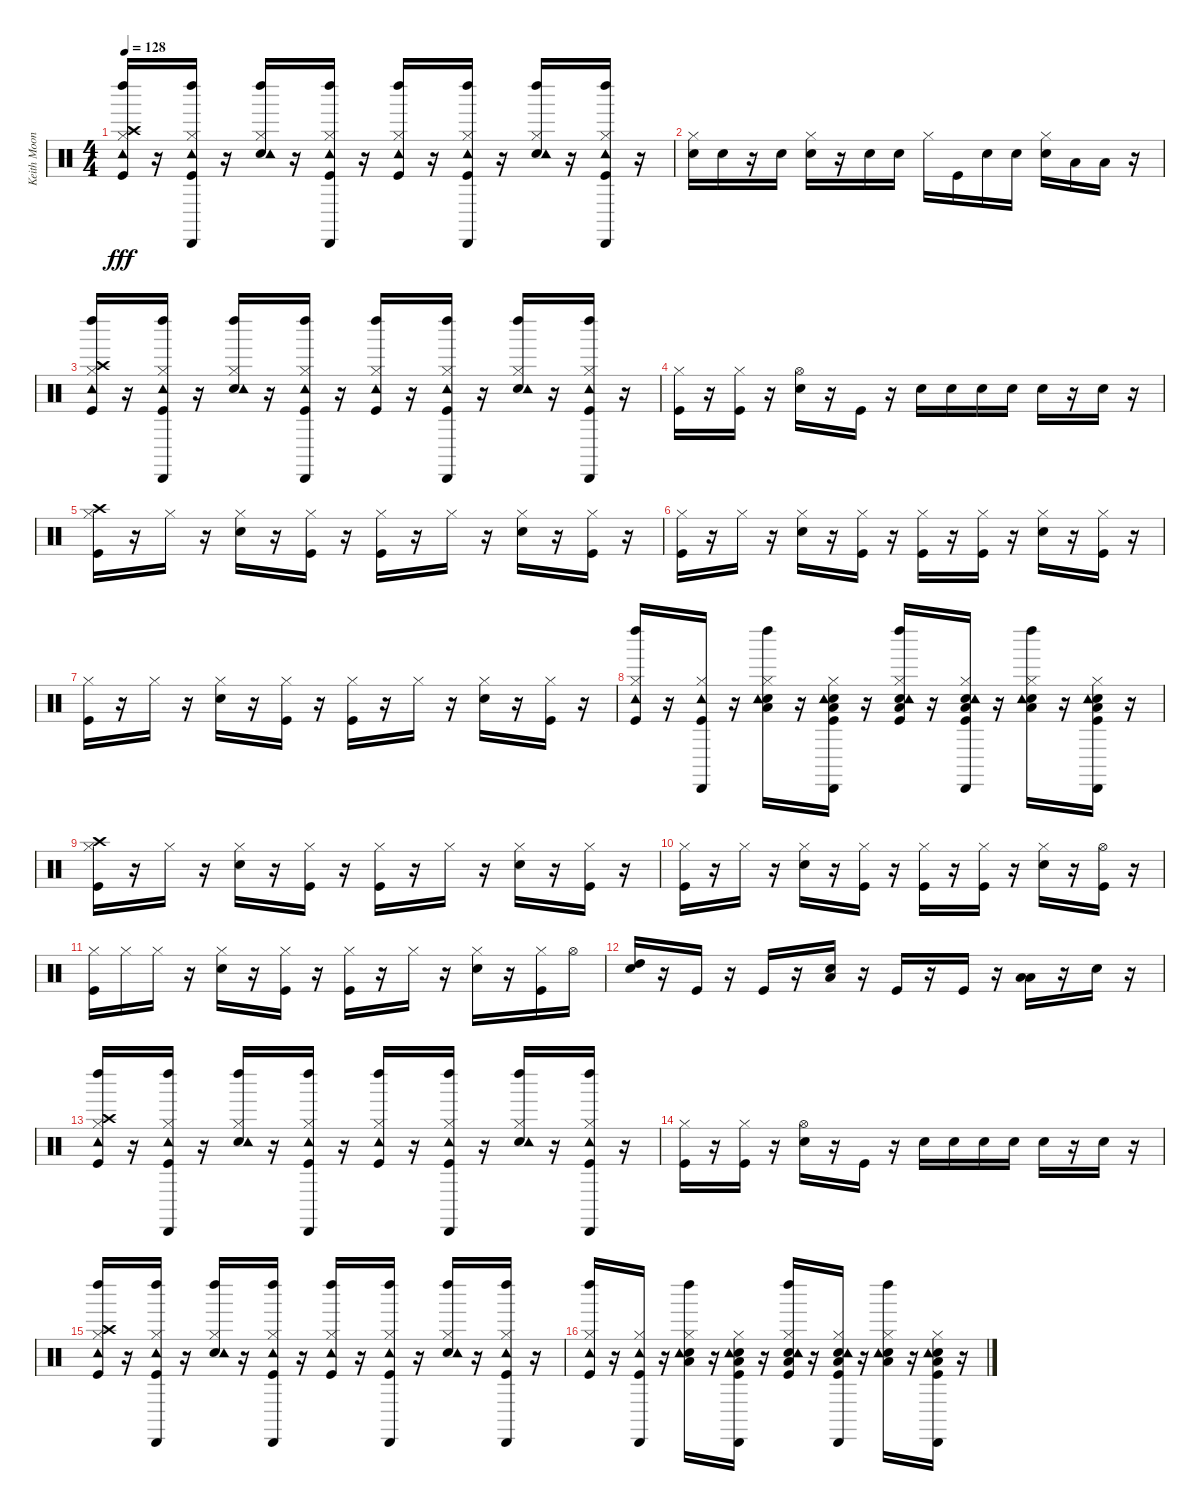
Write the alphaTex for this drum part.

\track ("Keith Moon" "Keith Moon") {instrument percussion}
\staff {score}
\articulation defaults
\ts (4 4)
\tempo 128
\clef neutral
\ks c
("Kick (hit)" "Hi-Hat (closed)" "Crash high (hit)" "Tambourine (hit)" "Left Maraca (hit)").16{dy fff} r.16 ("Kick (hit)" "Hi-Hat (closed)" "Tambourine (hit)" "Left Maraca (hit)" "Cabasa (hit)").16 r.16 ("Snare (hit) 2" "Hi-Hat (closed)" "Tambourine (hit)" "Left Maraca (hit)").16 r.16 ("Kick (hit)" "Hi-Hat (closed)" "Tambourine (hit)" "Left Maraca (hit)" "Cabasa (hit)").16 r.16 ("Kick (hit)" "Hi-Hat (closed)" "Tambourine (hit)" "Left Maraca (hit)").16 r.16 ("Kick (hit)" "Hi-Hat (closed)" "Tambourine (hit)" "Left Maraca (hit)" "Cabasa (hit)").16 r.16 ("Snare (hit) 2" "Hi-Hat (closed)" "Tambourine (hit)" "Left Maraca (hit)").16 r.16 ("Kick (hit)" "Hi-Hat (closed)" "Tambourine (hit)" "Left Maraca (hit)" "Cabasa (hit)").16 r.16 |
("Snare (hit) 2" "Hi-Hat (closed)").16 "Snare (hit) 2".16 r.16 "Snare (hit) 2".16 ("Snare (hit) 2" "Hi-Hat (closed)").16 r.16 "Snare (hit) 2".16 "Snare (hit) 2".16 "Hi-Hat (closed)".16 "Kick (hit)".16 "Snare (hit) 2".16 "Snare (hit) 2".16 ("Snare (hit) 2" "Hi-Hat (closed)").16 "Low Tom (hit)".16 "Low Floor Tom (hit)".16 r.16 |
("Kick (hit)" "Hi-Hat (closed)" "Crash high (hit)" "Tambourine (hit)" "Left Maraca (hit)").16 r.16 ("Kick (hit)" "Hi-Hat (closed)" "Tambourine (hit)" "Left Maraca (hit)" "Cabasa (hit)").16 r.16 ("Snare (hit) 2" "Hi-Hat (closed)" "Tambourine (hit)" "Left Maraca (hit)").16 r.16 ("Kick (hit)" "Hi-Hat (closed)" "Tambourine (hit)" "Left Maraca (hit)" "Cabasa (hit)").16 r.16 ("Kick (hit)" "Hi-Hat (closed)" "Tambourine (hit)" "Left Maraca (hit)").16 r.16 ("Kick (hit)" "Hi-Hat (closed)" "Tambourine (hit)" "Left Maraca (hit)" "Cabasa (hit)").16 r.16 ("Snare (hit) 2" "Hi-Hat (closed)" "Tambourine (hit)" "Left Maraca (hit)").16 r.16 ("Kick (hit)" "Hi-Hat (closed)" "Tambourine (hit)" "Left Maraca (hit)" "Cabasa (hit)").16 r.16 |
("Kick (hit)" "Hi-Hat (closed)").16 r.16 ("Kick (hit)" "Hi-Hat (closed)").16 r.16 ("Snare (hit) 2" "Hi-Hat (open)").16 r.16 "Kick (hit)".16 r.16 "Snare (hit) 2".16 "Snare (hit) 2".16 "Snare (hit) 2".16 "Snare (hit) 2".16 "Snare (hit) 2".16 r.16 "Snare (hit) 2".16 r.16 |
("Kick (hit)" "Hi-Hat (closed)" "Crash high (hit)").16 r.16 "Hi-Hat (closed)".16 r.16 ("Snare (hit) 2" "Hi-Hat (closed)").16 r.16 ("Kick (hit)" "Hi-Hat (closed)").16 r.16 ("Kick (hit)" "Hi-Hat (closed)").16 r.16 "Hi-Hat (closed)".16 r.16 ("Snare (hit) 2" "Hi-Hat (closed)").16 r.16 ("Kick (hit)" "Hi-Hat (closed)").16 r.16 |
("Kick (hit)" "Hi-Hat (closed)").16 r.16 "Hi-Hat (closed)".16 r.16 ("Snare (hit) 2" "Hi-Hat (closed)").16 r.16 ("Kick (hit)" "Hi-Hat (closed)").16 r.16 ("Kick (hit)" "Hi-Hat (closed)").16 r.16 ("Kick (hit)" "Hi-Hat (closed)").16 r.16 ("Snare (hit) 2" "Hi-Hat (closed)").16 r.16 ("Kick (hit)" "Hi-Hat (closed)").16 r.16 |
("Kick (hit)" "Hi-Hat (closed)").16 r.16 "Hi-Hat (closed)".16 r.16 ("Snare (hit) 2" "Hi-Hat (closed)").16 r.16 ("Kick (hit)" "Hi-Hat (closed)").16 r.16 ("Kick (hit)" "Hi-Hat (closed)").16 r.16 "Hi-Hat (closed)".16 r.16 ("Snare (hit) 2" "Hi-Hat (closed)").16 r.16 ("Kick (hit)" "Hi-Hat (closed)").16 r.16 |
("Kick (hit)" "Hi-Hat (closed)" "Tambourine (hit)" "Left Maraca (hit)").16 r.16 ("Kick (hit)" "Hi-Hat (closed)" "Tambourine (hit)" "Cabasa (hit)").16 r.16 ("Snare (hit) 2" "Hi-Hat (closed)" "Low Floor Tom (hit)" "Tambourine (hit)" "Left Maraca (hit)").16 r.16 ("Kick (hit)" "Snare (hit) 2" "Hi-Hat (closed)" "Low Floor Tom (hit)" "Tambourine (hit)" "Cabasa (hit)").16 r.16 ("Kick (hit)" "Snare (hit) 2" "Hi-Hat (closed)" "Low Floor Tom (hit)" "Tambourine (hit)" "Left Maraca (hit)").16 r.16 ("Kick (hit)" "Snare (hit) 2" "Hi-Hat (closed)" "Low Floor Tom (hit)" "Tambourine (hit)" "Cabasa (hit)").16 r.16 ("Snare (hit) 2" "Hi-Hat (closed)" "Low Floor Tom (hit)" "Tambourine (hit)" "Left Maraca (hit)").16 r.16 ("Kick (hit)" "Snare (hit) 2" "Hi-Hat (closed)" "Low Floor Tom (hit)" "Tambourine (hit)" "Cabasa (hit)").16 r.16 |
("Kick (hit)" "Hi-Hat (closed)" "Crash high (hit)").16 r.16 "Hi-Hat (closed)".16 r.16 ("Snare (hit) 2" "Hi-Hat (closed)").16 r.16 ("Kick (hit)" "Hi-Hat (closed)").16 r.16 ("Kick (hit)" "Hi-Hat (closed)").16 r.16 "Hi-Hat (closed)".16 r.16 ("Snare (hit) 2" "Hi-Hat (closed)").16 r.16 ("Kick (hit)" "Hi-Hat (closed)").16 r.16 |
("Kick (hit)" "Hi-Hat (closed)").16 r.16 "Hi-Hat (closed)".16 r.16 ("Snare (hit) 2" "Hi-Hat (closed)").16 r.16 ("Kick (hit)" "Hi-Hat (closed)").16 r.16 ("Kick (hit)" "Hi-Hat (closed)").16 r.16 ("Kick (hit)" "Hi-Hat (closed)").16 r.16 ("Snare (hit) 2" "Hi-Hat (closed)").16 r.16 ("Kick (hit)" "Hi-Hat (open)").16 r.16 |
("Kick (hit)" "Hi-Hat (closed)").16 "Hi-Hat (closed)".16 "Hi-Hat (closed)".16 r.16 ("Snare (hit) 2" "Hi-Hat (closed)").16 r.16 ("Kick (hit)" "Hi-Hat (closed)").16 r.16 ("Kick (hit)" "Hi-Hat (closed)").16 r.16 "Hi-Hat (closed)".16 r.16 ("Snare (hit) 2" "Hi-Hat (closed)").16 r.16 ("Kick (hit)" "Hi-Hat (closed)").16 "Hi-Hat (open)".16 |
("Snare (hit) 2" "High Tom (hit)").16 r.16 "Kick (hit)".16 r.16 "Kick (hit)".16 r.16 ("Snare (hit) 2" "Low Tom (hit)").16 r.16 "Kick (hit)".16 r.16 "Kick (hit)".16 r.16 ("Low Floor Tom (hit)" "Low Tom (hit)").16 r.16 "Snare (hit) 2".16 r.16 |
("Kick (hit)" "Hi-Hat (closed)" "Crash high (hit)" "Tambourine (hit)" "Left Maraca (hit)").16 r.16 ("Kick (hit)" "Hi-Hat (closed)" "Tambourine (hit)" "Left Maraca (hit)" "Cabasa (hit)").16 r.16 ("Snare (hit) 2" "Hi-Hat (closed)" "Tambourine (hit)" "Left Maraca (hit)").16 r.16 ("Kick (hit)" "Hi-Hat (closed)" "Tambourine (hit)" "Left Maraca (hit)" "Cabasa (hit)").16 r.16 ("Kick (hit)" "Hi-Hat (closed)" "Tambourine (hit)" "Left Maraca (hit)").16 r.16 ("Kick (hit)" "Hi-Hat (closed)" "Tambourine (hit)" "Left Maraca (hit)" "Cabasa (hit)").16 r.16 ("Snare (hit) 2" "Hi-Hat (closed)" "Tambourine (hit)" "Left Maraca (hit)").16 r.16 ("Kick (hit)" "Hi-Hat (closed)" "Tambourine (hit)" "Left Maraca (hit)" "Cabasa (hit)").16 r.16 |
("Kick (hit)" "Hi-Hat (closed)").16 r.16 ("Kick (hit)" "Hi-Hat (closed)").16 r.16 ("Snare (hit) 2" "Hi-Hat (open)").16 r.16 "Kick (hit)".16 r.16 "Snare (hit) 2".16 "Snare (hit) 2".16 "Snare (hit) 2".16 "Snare (hit) 2".16 "Snare (hit) 2".16 r.16 "Snare (hit) 2".16 r.16 |
("Kick (hit)" "Hi-Hat (closed)" "Crash high (hit)" "Tambourine (hit)" "Left Maraca (hit)").16 r.16 ("Kick (hit)" "Hi-Hat (closed)" "Tambourine (hit)" "Left Maraca (hit)" "Cabasa (hit)").16 r.16 ("Snare (hit) 2" "Hi-Hat (closed)" "Tambourine (hit)" "Left Maraca (hit)").16 r.16 ("Kick (hit)" "Hi-Hat (closed)" "Tambourine (hit)" "Left Maraca (hit)" "Cabasa (hit)").16 r.16 ("Kick (hit)" "Hi-Hat (closed)" "Tambourine (hit)" "Left Maraca (hit)").16 r.16 ("Kick (hit)" "Hi-Hat (closed)" "Tambourine (hit)" "Left Maraca (hit)" "Cabasa (hit)").16 r.16 ("Snare (hit) 2" "Hi-Hat (closed)" "Tambourine (hit)" "Left Maraca (hit)").16 r.16 ("Kick (hit)" "Hi-Hat (closed)" "Tambourine (hit)" "Left Maraca (hit)" "Cabasa (hit)").16 r.16 |
("Kick (hit)" "Hi-Hat (closed)" "Tambourine (hit)" "Left Maraca (hit)").16 r.16 ("Kick (hit)" "Hi-Hat (closed)" "Tambourine (hit)" "Cabasa (hit)").16 r.16 ("Snare (hit) 2" "Hi-Hat (closed)" "Low Floor Tom (hit)" "Tambourine (hit)" "Left Maraca (hit)").16 r.16 ("Kick (hit)" "Snare (hit) 2" "Hi-Hat (closed)" "Low Floor Tom (hit)" "Tambourine (hit)" "Cabasa (hit)").16 r.16 ("Kick (hit)" "Snare (hit) 2" "Hi-Hat (closed)" "Low Floor Tom (hit)" "Tambourine (hit)" "Left Maraca (hit)").16 r.16 ("Kick (hit)" "Snare (hit) 2" "Hi-Hat (closed)" "Low Floor Tom (hit)" "Tambourine (hit)" "Cabasa (hit)").16 r.16 ("Snare (hit) 2" "Hi-Hat (closed)" "Low Floor Tom (hit)" "Tambourine (hit)" "Left Maraca (hit)").16 r.16 ("Kick (hit)" "Snare (hit) 2" "Hi-Hat (closed)" "Low Floor Tom (hit)" "Tambourine (hit)" "Cabasa (hit)").16 r.16
